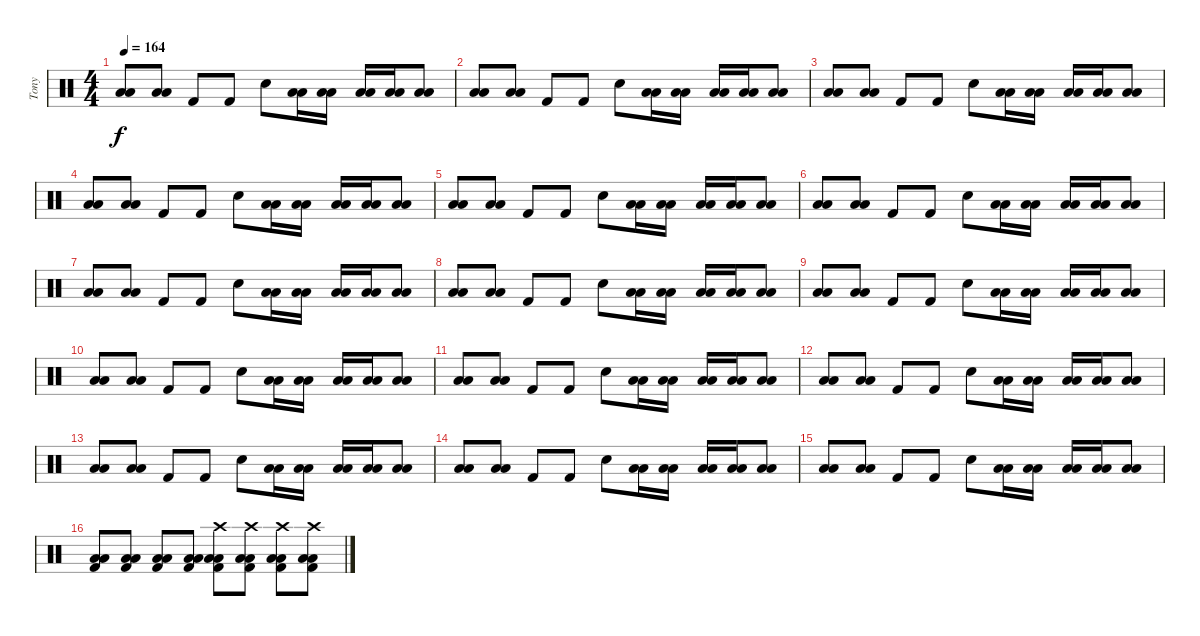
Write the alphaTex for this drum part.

\track ("Tony" "Tony") {instrument percussion}
\staff {score}
\articulation defaults
\ts (4 4)
\tempo 164
\clef neutral
\ks c
("Low Floor Tom (hit)" "Low Tom (hit)").8{dy f} ("Low Floor Tom (hit)" "Low Tom (hit)").8 "Kick (hit) 2".8 "Kick (hit) 2".8 "Snare (hit) 2".8 ("Low Tom (hit)" "Low Tom (hit)").16 ("Low Tom (hit)" "Low Tom (hit)").16 ("Low Floor Tom (hit)" "Low Floor Tom (hit)").16 ("Low Floor Tom (hit)" "Low Floor Tom (hit)").16 ("Low Floor Tom (hit)" "Low Floor Tom (hit)").8 |
("Low Floor Tom (hit)" "Low Tom (hit)").8 ("Low Floor Tom (hit)" "Low Tom (hit)").8 "Kick (hit) 2".8 "Kick (hit) 2".8 "Snare (hit) 2".8 ("Low Tom (hit)" "Low Tom (hit)").16 ("Low Tom (hit)" "Low Tom (hit)").16 ("Low Floor Tom (hit)" "Low Floor Tom (hit)").16 ("Low Floor Tom (hit)" "Low Floor Tom (hit)").16 ("Low Floor Tom (hit)" "Low Floor Tom (hit)").8 |
("Low Floor Tom (hit)" "Low Tom (hit)").8 ("Low Floor Tom (hit)" "Low Tom (hit)").8 "Kick (hit) 2".8 "Kick (hit) 2".8 "Snare (hit) 2".8 ("Low Tom (hit)" "Low Tom (hit)").16 ("Low Tom (hit)" "Low Tom (hit)").16 ("Low Floor Tom (hit)" "Low Floor Tom (hit)").16 ("Low Floor Tom (hit)" "Low Floor Tom (hit)").16 ("Low Floor Tom (hit)" "Low Floor Tom (hit)").8 |
("Low Floor Tom (hit)" "Low Tom (hit)").8 ("Low Floor Tom (hit)" "Low Tom (hit)").8 "Kick (hit) 2".8 "Kick (hit) 2".8 "Snare (hit) 2".8 ("Low Tom (hit)" "Low Tom (hit)").16 ("Low Tom (hit)" "Low Tom (hit)").16 ("Low Floor Tom (hit)" "Low Floor Tom (hit)").16 ("Low Floor Tom (hit)" "Low Floor Tom (hit)").16 ("Low Floor Tom (hit)" "Low Floor Tom (hit)").8 |
("Low Floor Tom (hit)" "Low Tom (hit)").8 ("Low Floor Tom (hit)" "Low Tom (hit)").8 "Kick (hit) 2".8 "Kick (hit) 2".8 "Snare (hit) 2".8 ("Low Tom (hit)" "Low Tom (hit)").16 ("Low Tom (hit)" "Low Tom (hit)").16 ("Low Floor Tom (hit)" "Low Floor Tom (hit)").16 ("Low Floor Tom (hit)" "Low Floor Tom (hit)").16 ("Low Floor Tom (hit)" "Low Floor Tom (hit)").8 |
("Low Floor Tom (hit)" "Low Tom (hit)").8 ("Low Floor Tom (hit)" "Low Tom (hit)").8 "Kick (hit) 2".8 "Kick (hit) 2".8 "Snare (hit) 2".8 ("Low Tom (hit)" "Low Tom (hit)").16 ("Low Tom (hit)" "Low Tom (hit)").16 ("Low Floor Tom (hit)" "Low Floor Tom (hit)").16 ("Low Floor Tom (hit)" "Low Floor Tom (hit)").16 ("Low Floor Tom (hit)" "Low Floor Tom (hit)").8 |
("Low Floor Tom (hit)" "Low Tom (hit)").8 ("Low Floor Tom (hit)" "Low Tom (hit)").8 "Kick (hit) 2".8 "Kick (hit) 2".8 "Snare (hit) 2".8 ("Low Tom (hit)" "Low Tom (hit)").16 ("Low Tom (hit)" "Low Tom (hit)").16 ("Low Floor Tom (hit)" "Low Floor Tom (hit)").16 ("Low Floor Tom (hit)" "Low Floor Tom (hit)").16 ("Low Floor Tom (hit)" "Low Floor Tom (hit)").8 |
("Low Floor Tom (hit)" "Low Tom (hit)").8 ("Low Floor Tom (hit)" "Low Tom (hit)").8 "Kick (hit) 2".8 "Kick (hit) 2".8 "Snare (hit) 2".8 ("Low Tom (hit)" "Low Tom (hit)").16 ("Low Tom (hit)" "Low Tom (hit)").16 ("Low Floor Tom (hit)" "Low Floor Tom (hit)").16 ("Low Floor Tom (hit)" "Low Floor Tom (hit)").16 ("Low Floor Tom (hit)" "Low Floor Tom (hit)").8 |
("Low Floor Tom (hit)" "Low Tom (hit)").8 ("Low Floor Tom (hit)" "Low Tom (hit)").8 "Kick (hit) 2".8 "Kick (hit) 2".8 "Snare (hit) 2".8 ("Low Tom (hit)" "Low Tom (hit)").16 ("Low Tom (hit)" "Low Tom (hit)").16 ("Low Floor Tom (hit)" "Low Floor Tom (hit)").16 ("Low Floor Tom (hit)" "Low Floor Tom (hit)").16 ("Low Floor Tom (hit)" "Low Floor Tom (hit)").8 |
("Low Floor Tom (hit)" "Low Tom (hit)").8 ("Low Floor Tom (hit)" "Low Tom (hit)").8 "Kick (hit) 2".8 "Kick (hit) 2".8 "Snare (hit) 2".8 ("Low Tom (hit)" "Low Tom (hit)").16 ("Low Tom (hit)" "Low Tom (hit)").16 ("Low Floor Tom (hit)" "Low Floor Tom (hit)").16 ("Low Floor Tom (hit)" "Low Floor Tom (hit)").16 ("Low Floor Tom (hit)" "Low Floor Tom (hit)").8 |
("Low Floor Tom (hit)" "Low Tom (hit)").8 ("Low Floor Tom (hit)" "Low Tom (hit)").8 "Kick (hit) 2".8 "Kick (hit) 2".8 "Snare (hit) 2".8 ("Low Tom (hit)" "Low Tom (hit)").16 ("Low Tom (hit)" "Low Tom (hit)").16 ("Low Floor Tom (hit)" "Low Floor Tom (hit)").16 ("Low Floor Tom (hit)" "Low Floor Tom (hit)").16 ("Low Floor Tom (hit)" "Low Floor Tom (hit)").8 |
("Low Floor Tom (hit)" "Low Tom (hit)").8 ("Low Floor Tom (hit)" "Low Tom (hit)").8 "Kick (hit) 2".8 "Kick (hit) 2".8 "Snare (hit) 2".8 ("Low Tom (hit)" "Low Tom (hit)").16 ("Low Tom (hit)" "Low Tom (hit)").16 ("Low Floor Tom (hit)" "Low Floor Tom (hit)").16 ("Low Floor Tom (hit)" "Low Floor Tom (hit)").16 ("Low Floor Tom (hit)" "Low Floor Tom (hit)").8 |
("Low Floor Tom (hit)" "Low Tom (hit)").8 ("Low Floor Tom (hit)" "Low Tom (hit)").8 "Kick (hit) 2".8 "Kick (hit) 2".8 "Snare (hit) 2".8 ("Low Tom (hit)" "Low Tom (hit)").16 ("Low Tom (hit)" "Low Tom (hit)").16 ("Low Floor Tom (hit)" "Low Floor Tom (hit)").16 ("Low Floor Tom (hit)" "Low Floor Tom (hit)").16 ("Low Floor Tom (hit)" "Low Floor Tom (hit)").8 |
("Low Floor Tom (hit)" "Low Tom (hit)").8 ("Low Floor Tom (hit)" "Low Tom (hit)").8 "Kick (hit) 2".8 "Kick (hit) 2".8 "Snare (hit) 2".8 ("Low Tom (hit)" "Low Tom (hit)").16 ("Low Tom (hit)" "Low Tom (hit)").16 ("Low Floor Tom (hit)" "Low Floor Tom (hit)").16 ("Low Floor Tom (hit)" "Low Floor Tom (hit)").16 ("Low Floor Tom (hit)" "Low Floor Tom (hit)").8 |
("Low Floor Tom (hit)" "Low Tom (hit)").8 ("Low Floor Tom (hit)" "Low Tom (hit)").8 "Kick (hit) 2".8 "Kick (hit) 2".8 "Snare (hit) 2".8 ("Low Tom (hit)" "Low Tom (hit)").16 ("Low Tom (hit)" "Low Tom (hit)").16 ("Low Floor Tom (hit)" "Low Floor Tom (hit)").16 ("Low Floor Tom (hit)" "Low Floor Tom (hit)").16 ("Low Floor Tom (hit)" "Low Floor Tom (hit)").8 |
("Low Floor Tom (hit)" "Low Floor Tom (hit)" "Kick (hit) 2").8 ("Low Floor Tom (hit)" "Low Floor Tom (hit)" "Kick (hit) 2").8 ("Low Floor Tom (hit)" "Low Floor Tom (hit)" "Kick (hit) 2").8 ("Low Floor Tom (hit)" "Low Floor Tom (hit)" "Kick (hit) 2").8 ("Crash high (hit)" "Low Floor Tom (hit)" "Low Floor Tom (hit)" "Kick (hit) 2").8 ("Crash high (hit)" "Low Floor Tom (hit)" "Low Floor Tom (hit)" "Kick (hit) 2").8 ("Crash high (hit)" "Low Floor Tom (hit)" "Low Floor Tom (hit)" "Kick (hit) 2").8 ("Crash high (hit)" "Low Floor Tom (hit)" "Low Floor Tom (hit)" "Kick (hit) 2").8
